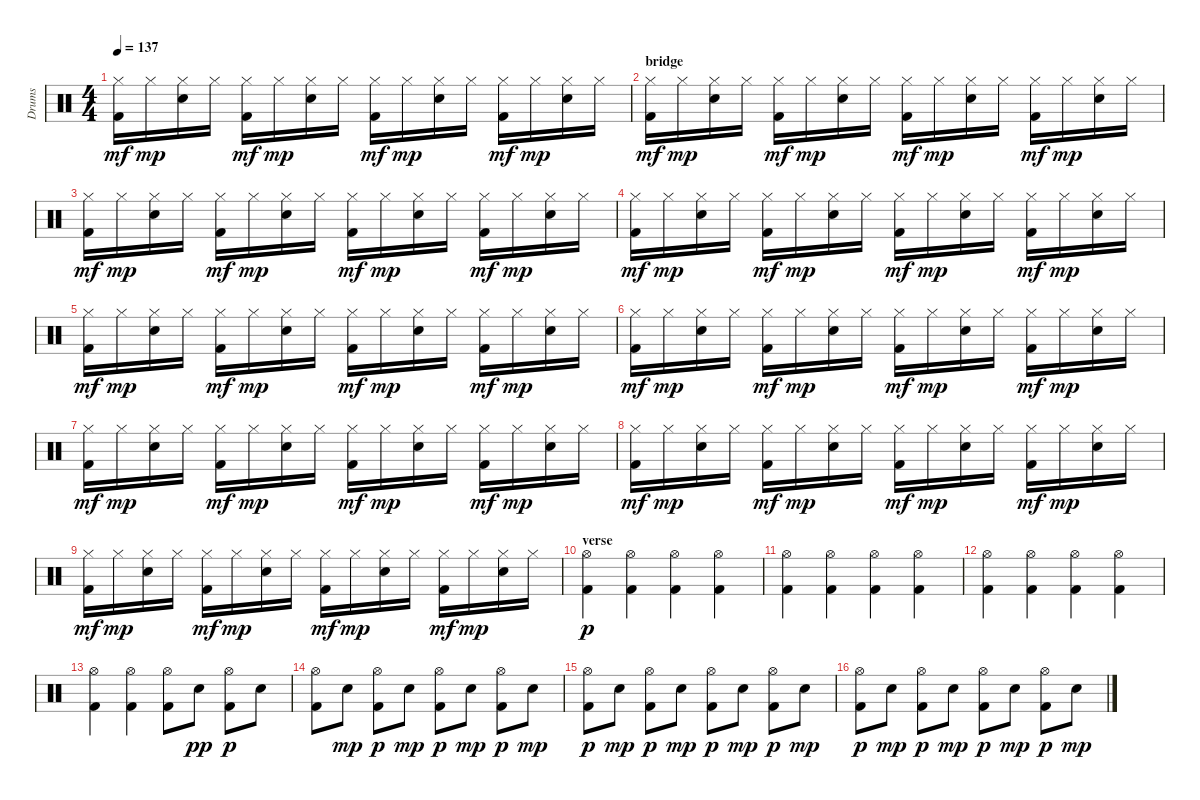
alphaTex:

\track ("Drums" "Drums") {instrument percussion}
\staff {score}
\articulation defaults
\ts (4 4)
\tempo 137
\clef neutral
\ks c
("Hi-Hat (closed)" "Kick (hit) 2").16{dy mf} "Hi-Hat (closed)".16{dy mp} ("Hi-Hat (closed)" "Snare (hit) 2").16 "Hi-Hat (closed)".16 ("Hi-Hat (closed)" "Kick (hit) 2").16{dy mf} "Hi-Hat (closed)".16{dy mp} ("Hi-Hat (closed)" "Snare (hit) 2").16 "Hi-Hat (closed)".16 ("Hi-Hat (closed)" "Kick (hit) 2").16{dy mf} "Hi-Hat (closed)".16{dy mp} ("Hi-Hat (closed)" "Snare (hit) 2").16 "Hi-Hat (closed)".16 ("Hi-Hat (closed)" "Kick (hit) 2").16{dy mf} "Hi-Hat (closed)".16{dy mp} ("Hi-Hat (closed)" "Snare (hit) 2").16 "Hi-Hat (closed)".16 |
\section ("" "bridge")
("Hi-Hat (closed)" "Kick (hit) 2").16{dy mf} "Hi-Hat (closed)".16{dy mp} ("Hi-Hat (closed)" "Snare (hit) 2").16 "Hi-Hat (closed)".16 ("Hi-Hat (closed)" "Kick (hit) 2").16{dy mf} "Hi-Hat (closed)".16{dy mp} ("Hi-Hat (closed)" "Snare (hit) 2").16 "Hi-Hat (closed)".16 ("Hi-Hat (closed)" "Kick (hit) 2").16{dy mf} "Hi-Hat (closed)".16{dy mp} ("Hi-Hat (closed)" "Snare (hit) 2").16 "Hi-Hat (closed)".16 ("Hi-Hat (closed)" "Kick (hit) 2").16{dy mf} "Hi-Hat (closed)".16{dy mp} ("Hi-Hat (closed)" "Snare (hit) 2").16 "Hi-Hat (closed)".16 |
("Hi-Hat (closed)" "Kick (hit) 2").16{dy mf} "Hi-Hat (closed)".16{dy mp} ("Hi-Hat (closed)" "Snare (hit) 2").16 "Hi-Hat (closed)".16 ("Hi-Hat (closed)" "Kick (hit) 2").16{dy mf} "Hi-Hat (closed)".16{dy mp} ("Hi-Hat (closed)" "Snare (hit) 2").16 "Hi-Hat (closed)".16 ("Hi-Hat (closed)" "Kick (hit) 2").16{dy mf} "Hi-Hat (closed)".16{dy mp} ("Hi-Hat (closed)" "Snare (hit) 2").16 "Hi-Hat (closed)".16 ("Hi-Hat (closed)" "Kick (hit) 2").16{dy mf} "Hi-Hat (closed)".16{dy mp} ("Hi-Hat (closed)" "Snare (hit) 2").16 "Hi-Hat (closed)".16 |
("Hi-Hat (closed)" "Kick (hit) 2").16{dy mf} "Hi-Hat (closed)".16{dy mp} ("Hi-Hat (closed)" "Snare (hit) 2").16 "Hi-Hat (closed)".16 ("Hi-Hat (closed)" "Kick (hit) 2").16{dy mf} "Hi-Hat (closed)".16{dy mp} ("Hi-Hat (closed)" "Snare (hit) 2").16 "Hi-Hat (closed)".16 ("Hi-Hat (closed)" "Kick (hit) 2").16{dy mf} "Hi-Hat (closed)".16{dy mp} ("Hi-Hat (closed)" "Snare (hit) 2").16 "Hi-Hat (closed)".16 ("Hi-Hat (closed)" "Kick (hit) 2").16{dy mf} "Hi-Hat (closed)".16{dy mp} ("Hi-Hat (closed)" "Snare (hit) 2").16 "Hi-Hat (closed)".16 |
("Hi-Hat (closed)" "Kick (hit) 2").16{dy mf} "Hi-Hat (closed)".16{dy mp} ("Hi-Hat (closed)" "Snare (hit) 2").16 "Hi-Hat (closed)".16 ("Hi-Hat (closed)" "Kick (hit) 2").16{dy mf} "Hi-Hat (closed)".16{dy mp} ("Hi-Hat (closed)" "Snare (hit) 2").16 "Hi-Hat (closed)".16 ("Hi-Hat (closed)" "Kick (hit) 2").16{dy mf} "Hi-Hat (closed)".16{dy mp} ("Hi-Hat (closed)" "Snare (hit) 2").16 "Hi-Hat (closed)".16 ("Hi-Hat (closed)" "Kick (hit) 2").16{dy mf} "Hi-Hat (closed)".16{dy mp} ("Hi-Hat (closed)" "Snare (hit) 2").16 "Hi-Hat (closed)".16 |
("Hi-Hat (closed)" "Kick (hit) 2").16{dy mf} "Hi-Hat (closed)".16{dy mp} ("Hi-Hat (closed)" "Snare (hit) 2").16 "Hi-Hat (closed)".16 ("Hi-Hat (closed)" "Kick (hit) 2").16{dy mf} "Hi-Hat (closed)".16{dy mp} ("Hi-Hat (closed)" "Snare (hit) 2").16 "Hi-Hat (closed)".16 ("Hi-Hat (closed)" "Kick (hit) 2").16{dy mf} "Hi-Hat (closed)".16{dy mp} ("Hi-Hat (closed)" "Snare (hit) 2").16 "Hi-Hat (closed)".16 ("Hi-Hat (closed)" "Kick (hit) 2").16{dy mf} "Hi-Hat (closed)".16{dy mp} ("Hi-Hat (closed)" "Snare (hit) 2").16 "Hi-Hat (closed)".16 |
("Hi-Hat (closed)" "Kick (hit) 2").16{dy mf} "Hi-Hat (closed)".16{dy mp} ("Hi-Hat (closed)" "Snare (hit) 2").16 "Hi-Hat (closed)".16 ("Hi-Hat (closed)" "Kick (hit) 2").16{dy mf} "Hi-Hat (closed)".16{dy mp} ("Hi-Hat (closed)" "Snare (hit) 2").16 "Hi-Hat (closed)".16 ("Hi-Hat (closed)" "Kick (hit) 2").16{dy mf} "Hi-Hat (closed)".16{dy mp} ("Hi-Hat (closed)" "Snare (hit) 2").16 "Hi-Hat (closed)".16 ("Hi-Hat (closed)" "Kick (hit) 2").16{dy mf} "Hi-Hat (closed)".16{dy mp} ("Hi-Hat (closed)" "Snare (hit) 2").16 "Hi-Hat (closed)".16 |
("Hi-Hat (closed)" "Kick (hit) 2").16{dy mf} "Hi-Hat (closed)".16{dy mp} ("Hi-Hat (closed)" "Snare (hit) 2").16 "Hi-Hat (closed)".16 ("Hi-Hat (closed)" "Kick (hit) 2").16{dy mf} "Hi-Hat (closed)".16{dy mp} ("Hi-Hat (closed)" "Snare (hit) 2").16 "Hi-Hat (closed)".16 ("Hi-Hat (closed)" "Kick (hit) 2").16{dy mf} "Hi-Hat (closed)".16{dy mp} ("Hi-Hat (closed)" "Snare (hit) 2").16 "Hi-Hat (closed)".16 ("Hi-Hat (closed)" "Kick (hit) 2").16{dy mf} "Hi-Hat (closed)".16{dy mp} ("Hi-Hat (closed)" "Snare (hit) 2").16 "Hi-Hat (closed)".16 |
("Hi-Hat (closed)" "Kick (hit) 2").16{dy mf} "Hi-Hat (closed)".16{dy mp} ("Hi-Hat (closed)" "Snare (hit) 2").16 "Hi-Hat (closed)".16 ("Hi-Hat (closed)" "Kick (hit) 2").16{dy mf} "Hi-Hat (closed)".16{dy mp} ("Hi-Hat (closed)" "Snare (hit) 2").16 "Hi-Hat (closed)".16 ("Hi-Hat (closed)" "Kick (hit) 2").16{dy mf} "Hi-Hat (closed)".16{dy mp} ("Hi-Hat (closed)" "Snare (hit) 2").16 "Hi-Hat (closed)".16 ("Hi-Hat (closed)" "Kick (hit) 2").16{dy mf} "Hi-Hat (closed)".16{dy mp} ("Hi-Hat (closed)" "Snare (hit) 2").16 "Hi-Hat (closed)".16 |
\section ("" "verse")
("Hi-Hat (open)" "Kick (hit) 2").4{dy p} ("Hi-Hat (open)" "Kick (hit) 2").4 ("Hi-Hat (open)" "Kick (hit) 2").4 ("Hi-Hat (open)" "Kick (hit) 2").4 |
("Hi-Hat (open)" "Kick (hit) 2").4 ("Hi-Hat (open)" "Kick (hit) 2").4 ("Hi-Hat (open)" "Kick (hit) 2").4 ("Hi-Hat (open)" "Kick (hit) 2").4 |
("Hi-Hat (open)" "Kick (hit) 2").4 ("Hi-Hat (open)" "Kick (hit) 2").4 ("Hi-Hat (open)" "Kick (hit) 2").4 ("Hi-Hat (open)" "Kick (hit) 2").4 |
("Hi-Hat (open)" "Kick (hit) 2").4 ("Hi-Hat (open)" "Kick (hit) 2").4 ("Hi-Hat (open)" "Kick (hit) 2").8 "Snare (hit) 2".8{dy pp} ("Hi-Hat (open)" "Kick (hit) 2").8{dy p} "Snare (hit) 2".8 |
("Hi-Hat (open)" "Kick (hit) 2").8 "Snare (hit) 2".8{dy mp} ("Hi-Hat (open)" "Kick (hit) 2").8{dy p} "Snare (hit) 2".8{dy mp} ("Hi-Hat (open)" "Kick (hit) 2").8{dy p} "Snare (hit) 2".8{dy mp} ("Hi-Hat (open)" "Kick (hit) 2").8{dy p} "Snare (hit) 2".8{dy mp} |
("Hi-Hat (open)" "Kick (hit) 2").8{dy p} "Snare (hit) 2".8{dy mp} ("Hi-Hat (open)" "Kick (hit) 2").8{dy p} "Snare (hit) 2".8{dy mp} ("Hi-Hat (open)" "Kick (hit) 2").8{dy p} "Snare (hit) 2".8{dy mp} ("Hi-Hat (open)" "Kick (hit) 2").8{dy p} "Snare (hit) 2".8{dy mp} |
("Hi-Hat (open)" "Kick (hit) 2").8{dy p} "Snare (hit) 2".8{dy mp} ("Hi-Hat (open)" "Kick (hit) 2").8{dy p} "Snare (hit) 2".8{dy mp} ("Hi-Hat (open)" "Kick (hit) 2").8{dy p} "Snare (hit) 2".8{dy mp} ("Hi-Hat (open)" "Kick (hit) 2").8{dy p} "Snare (hit) 2".8{dy mp}
